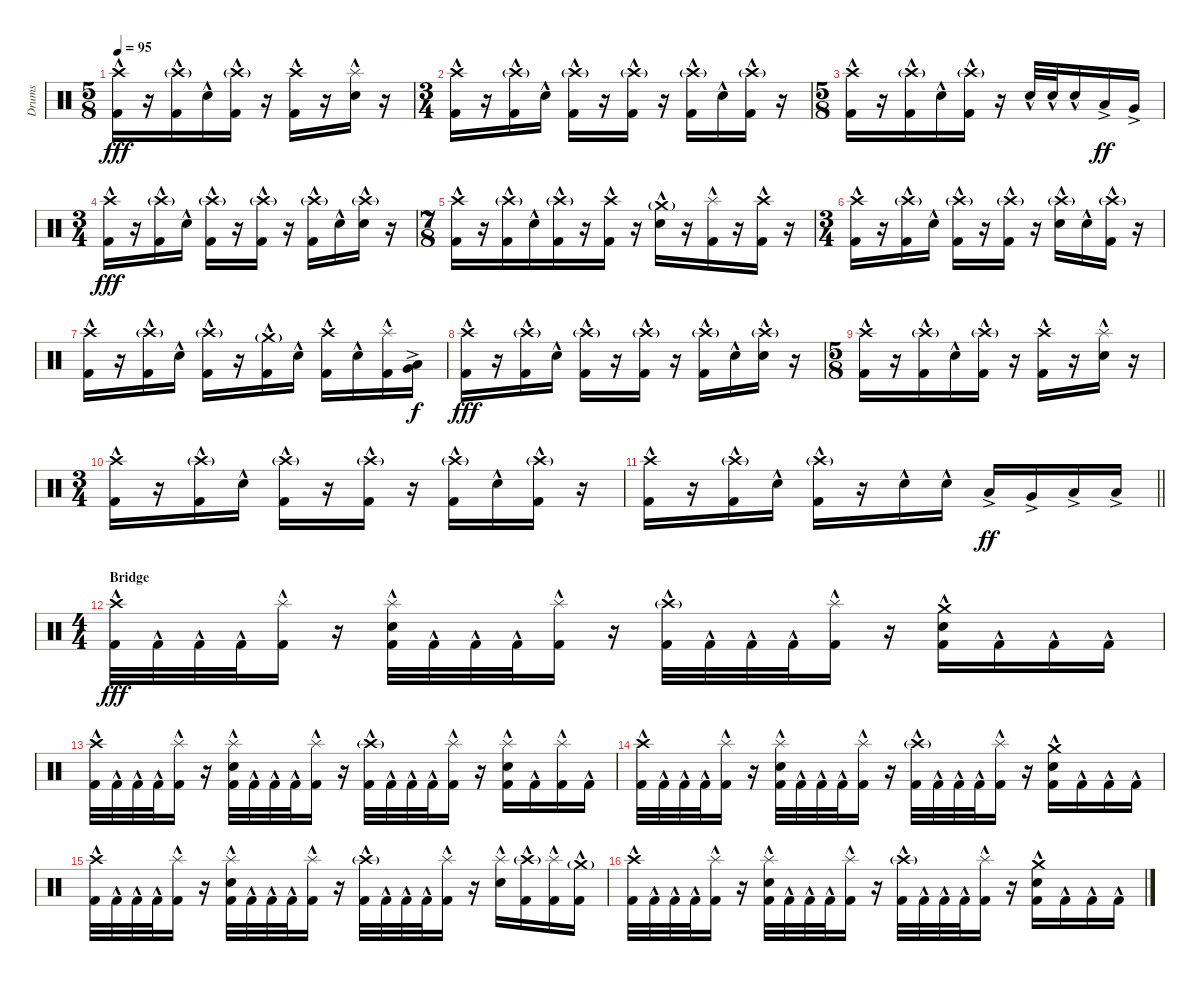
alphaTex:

\track ("Drums" "Drums") {instrument percussion}
\staff {score}
\articulation defaults
\ts (5 8)
\tempo 95
\clef neutral
\ks c
("Crash high (hit)" "Kick (hit) 2"{hac}).16{dy fff} r.16 ("Crash high (hit)"{g} "Kick (hit) 2"{hac}).16 "Electric Snare (hit)"{hac}.16 ("Crash high (hit)"{g} "Kick (hit) 2"{hac}).16 r.16 ("Crash high (hit)" "Kick (hit) 2"{hac}).16 r.16 ("Splash (hit)"{hac} "Electric Snare (hit)"{hac}).16 r.16 |
\ts (3 4)
("Crash high (hit)" "Kick (hit) 2"{hac}).16 r.16 ("Crash high (hit)"{g} "Kick (hit) 2"{hac}).16 "Electric Snare (hit)"{hac}.16 ("Crash high (hit)"{g} "Kick (hit) 2"{hac}).16 r.16 ("Crash high (hit)"{g} "Kick (hit) 2"{hac}).16 r.16 ("Crash high (hit)"{g} "Kick (hit) 2"{hac}).16 "Electric Snare (hit)"{hac}.16 ("Crash high (hit)"{g} "Kick (hit) 2"{hac}).16 r.16 |
\ts (5 8)
("Crash high (hit)" "Kick (hit) 2"{hac}).16 r.16 ("Crash high (hit)"{g} "Kick (hit) 2"{hac}).16 "Electric Snare (hit)"{hac}.16 ("Crash high (hit)"{g} "Kick (hit) 2"{hac}).16 r.16 "Electric Snare (hit)"{hac}.32 "Electric Snare (hit)"{hac}.32 "Electric Snare (hit)"{hac}.16 "Low Tom (hit)"{ac}.16{dy ff} "Very Low Tom (hit)"{ac}.16 |
\ts (3 4)
("Crash high (hit)" "Kick (hit) 2"{hac}).16{dy fff} r.16 ("Crash high (hit)"{g} "Kick (hit) 2"{hac}).16 "Electric Snare (hit)"{hac}.16 ("Crash high (hit)"{g} "Kick (hit) 2"{hac}).16 r.16 ("Crash high (hit)"{g} "Kick (hit) 2"{hac}).16 r.16 ("Crash high (hit)"{g} "Kick (hit) 2"{hac}).16 "Electric Snare (hit)"{hac}.16 ("Crash high (hit)"{g} "Electric Snare (hit)"{hac}).16 r.16 |
\ts (7 8)
("Crash high (hit)" "Kick (hit) 2"{hac}).16 r.16 ("Crash high (hit)"{g} "Kick (hit) 2"{hac}).16 "Electric Snare (hit)"{hac}.16 ("Crash high (hit)"{g} "Kick (hit) 2"{hac}).16 r.16 ("Crash high (hit)" "Kick (hit) 2"{hac}).16 r.16 ("Crash medium (hit)"{g} "Electric Snare (hit)"{hac}).16 r.16 ("Splash (hit)"{hac} "Kick (hit) 2"{hac}).16 r.16 ("Crash high (hit)" "Kick (hit) 2"{hac}).16 r.16 |
\ts (3 4)
("Crash high (hit)" "Kick (hit) 2"{hac}).16 r.16 ("Crash high (hit)"{g} "Kick (hit) 2"{hac}).16 "Electric Snare (hit)"{hac}.16 ("Crash high (hit)"{g} "Kick (hit) 2"{hac}).16 r.16 ("Crash high (hit)"{g} "Kick (hit) 2"{hac}).16 r.16 ("Crash high (hit)"{g} "Electric Snare (hit)"{hac}).16 "Electric Snare (hit)"{hac}.16 ("Crash high (hit)"{g} "Kick (hit) 2"{hac}).16 r.16 |
("Crash high (hit)" "Kick (hit) 2"{hac}).16 r.16 ("Crash high (hit)"{g} "Kick (hit) 2"{hac}).16 "Electric Snare (hit)"{hac}.16 ("Crash high (hit)"{g} "Kick (hit) 2"{hac}).16 r.16 ("Crash medium (hit)"{g} "Kick (hit) 2"{hac}).16 "Electric Snare (hit)"{hac}.16 ("Crash high (hit)" "Kick (hit) 2"{hac}).16 "Electric Snare (hit)"{hac}.16 ("Splash (hit)"{hac} "Kick (hit) 2"{hac}).16 ("Very Low Tom (hit)"{ac} "Low Floor Tom (hit)"{ac}).16{bd 60 dy f} |
("Crash high (hit)" "Kick (hit) 2"{hac}).16{dy fff} r.16 ("Crash high (hit)"{g} "Kick (hit) 2"{hac}).16 "Electric Snare (hit)"{hac}.16 ("Crash high (hit)"{g} "Kick (hit) 2"{hac}).16 r.16 ("Crash high (hit)"{g} "Kick (hit) 2"{hac}).16 r.16 ("Crash high (hit)"{g} "Kick (hit) 2"{hac}).16 "Electric Snare (hit)"{hac}.16 ("Crash high (hit)"{g} "Electric Snare (hit)"{hac}).16 r.16 |
\ts (5 8)
("Crash high (hit)" "Kick (hit) 2"{hac}).16 r.16 ("Crash high (hit)"{g} "Kick (hit) 2"{hac}).16 "Electric Snare (hit)"{hac}.16 ("Crash high (hit)"{g} "Kick (hit) 2"{hac}).16 r.16 ("Crash high (hit)" "Kick (hit) 2"{hac}).16 r.16 ("Splash (hit)"{hac} "Electric Snare (hit)"{hac}).16 r.16 |
\ts (3 4)
("Crash high (hit)" "Kick (hit) 2"{hac}).16 r.16 ("Crash high (hit)"{g} "Kick (hit) 2"{hac}).16 "Electric Snare (hit)"{hac}.16 ("Crash high (hit)"{g} "Kick (hit) 2"{hac}).16 r.16 ("Crash high (hit)"{g} "Kick (hit) 2"{hac}).16 r.16 ("Crash high (hit)"{g} "Kick (hit) 2"{hac}).16 "Electric Snare (hit)"{hac}.16 ("Crash high (hit)"{g} "Kick (hit) 2"{hac}).16 r.16 |
\barLineRight lightlight
("Crash high (hit)" "Kick (hit) 2"{hac}).16 r.16 ("Crash high (hit)"{g} "Kick (hit) 2"{hac}).16 "Electric Snare (hit)"{hac}.16 ("Crash high (hit)"{g} "Kick (hit) 2"{hac}).16 r.16 "Electric Snare (hit)"{hac}.16 "Electric Snare (hit)"{hac}.16 "Low Tom (hit)"{ac}.16{dy ff} "Very Low Tom (hit)"{ac}.16 "Low Floor Tom (hit)"{ac}.16 "Low Floor Tom (hit)"{ac}.16 |
\ts (4 4)
\section ("" "Bridge")
("Crash high (hit)" "Kick (hit) 2"{hac}).32{dy fff} "Kick (hit) 2"{hac}.32 "Kick (hit) 2"{hac}.32 "Kick (hit) 2"{hac}.32 ("Splash (hit)" "Kick (hit) 2"{hac}).16 r.16 ("Splash (hit)" "Electric Snare (hit)"{hac} "Kick (hit) 2"{hac}).32 "Kick (hit) 2"{hac}.32 "Kick (hit) 2"{hac}.32 "Kick (hit) 2"{hac}.32 ("Splash (hit)" "Kick (hit) 2"{hac}).16 r.16 ("Crash high (hit)"{g} "Kick (hit) 2"{hac}).32 "Kick (hit) 2"{hac}.32 "Kick (hit) 2"{hac}.32 "Kick (hit) 2"{hac}.32 ("Splash (hit)" "Kick (hit) 2"{hac}).16 r.16 ("Crash medium (hit)" "Electric Snare (hit)"{hac} "Kick (hit) 2"{hac}).16 "Kick (hit) 2"{hac}.16 "Kick (hit) 2"{hac}.16 "Kick (hit) 2"{hac}.16 |
("Crash high (hit)" "Kick (hit) 2"{hac}).32 "Kick (hit) 2"{hac}.32 "Kick (hit) 2"{hac}.32 "Kick (hit) 2"{hac}.32 ("Splash (hit)" "Kick (hit) 2"{hac}).16 r.16 ("Splash (hit)" "Electric Snare (hit)"{hac} "Kick (hit) 2"{hac}).32 "Kick (hit) 2"{hac}.32 "Kick (hit) 2"{hac}.32 "Kick (hit) 2"{hac}.32 ("Splash (hit)" "Kick (hit) 2"{hac}).16 r.16 ("Crash high (hit)"{g} "Kick (hit) 2"{hac}).32 "Kick (hit) 2"{hac}.32 "Kick (hit) 2"{hac}.32 "Kick (hit) 2"{hac}.32 ("Splash (hit)" "Kick (hit) 2"{hac}).16 r.16 ("Splash (hit)" "Electric Snare (hit)"{hac} "Kick (hit) 2"{hac}).16 "Kick (hit) 2"{hac}.16 ("Splash (hit)" "Kick (hit) 2"{hac}).16 "Kick (hit) 2"{hac}.16 |
("Crash high (hit)" "Kick (hit) 2"{hac}).32 "Kick (hit) 2"{hac}.32 "Kick (hit) 2"{hac}.32 "Kick (hit) 2"{hac}.32 ("Splash (hit)" "Kick (hit) 2"{hac}).16 r.16 ("Splash (hit)" "Electric Snare (hit)"{hac} "Kick (hit) 2"{hac}).32 "Kick (hit) 2"{hac}.32 "Kick (hit) 2"{hac}.32 "Kick (hit) 2"{hac}.32 ("Splash (hit)" "Kick (hit) 2"{hac}).16 r.16 ("Crash high (hit)"{g} "Kick (hit) 2"{hac}).32 "Kick (hit) 2"{hac}.32 "Kick (hit) 2"{hac}.32 "Kick (hit) 2"{hac}.32 ("Splash (hit)" "Kick (hit) 2"{hac}).16 r.16 ("Crash medium (hit)" "Electric Snare (hit)"{hac} "Kick (hit) 2"{hac}).16 "Kick (hit) 2"{hac}.16 "Kick (hit) 2"{hac}.16 "Kick (hit) 2"{hac}.16 |
("Crash high (hit)" "Kick (hit) 2"{hac}).32 "Kick (hit) 2"{hac}.32 "Kick (hit) 2"{hac}.32 "Kick (hit) 2"{hac}.32 ("Splash (hit)" "Kick (hit) 2"{hac}).16 r.16 ("Splash (hit)" "Electric Snare (hit)"{hac} "Kick (hit) 2"{hac}).32 "Kick (hit) 2"{hac}.32 "Kick (hit) 2"{hac}.32 "Kick (hit) 2"{hac}.32 ("Splash (hit)" "Kick (hit) 2"{hac}).16 r.16 ("Crash high (hit)"{g} "Kick (hit) 2"{hac}).32 "Kick (hit) 2"{hac}.32 "Kick (hit) 2"{hac}.32 "Kick (hit) 2"{hac}.32 ("Splash (hit)" "Kick (hit) 2"{hac}).16 r.16 ("Splash (hit)" "Electric Snare (hit)"{hac}).16 ("Crash high (hit)"{g} "Kick (hit) 2"{hac}).16 ("Splash (hit)" "Kick (hit) 2"{hac}).16 ("Crash medium (hit)"{g} "Kick (hit) 2"{hac}).16 |
("Crash high (hit)" "Kick (hit) 2"{hac}).32 "Kick (hit) 2"{hac}.32 "Kick (hit) 2"{hac}.32 "Kick (hit) 2"{hac}.32 ("Splash (hit)" "Kick (hit) 2"{hac}).16 r.16 ("Splash (hit)" "Electric Snare (hit)"{hac} "Kick (hit) 2"{hac}).32 "Kick (hit) 2"{hac}.32 "Kick (hit) 2"{hac}.32 "Kick (hit) 2"{hac}.32 ("Splash (hit)" "Kick (hit) 2"{hac}).16 r.16 ("Crash high (hit)"{g} "Kick (hit) 2"{hac}).32 "Kick (hit) 2"{hac}.32 "Kick (hit) 2"{hac}.32 "Kick (hit) 2"{hac}.32 ("Splash (hit)" "Kick (hit) 2"{hac}).16 r.16 ("Crash medium (hit)" "Electric Snare (hit)"{hac} "Kick (hit) 2"{hac}).16 "Kick (hit) 2"{hac}.16 "Kick (hit) 2"{hac}.16 "Kick (hit) 2"{hac}.16
